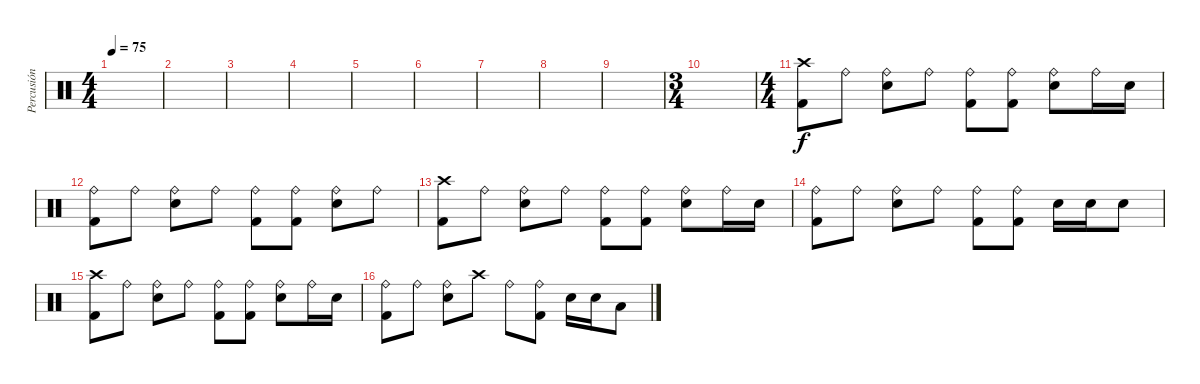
\track ("Percusión" "Percusión") {instrument percussion}
\staff {score}
\articulation defaults
\ts (4 4)
\tempo 75
\clef neutral
\ks c
|
|
|
|
|
|
|
|
|
\ts (3 4)
|
\ts (4 4)
("Crash high (hit)" "Kick (hit) 2").8 "Ride (bell)".8 ("Ride (bell)" "Electric Snare (hit)").8 "Ride (bell)".8 ("Ride (bell)" "Kick (hit) 2").8 ("Ride (bell)" "Kick (hit) 2").8 ("Ride (bell)" "Electric Snare (hit)").8 "Ride (bell)".16 "Electric Snare (hit)".16 |
("Ride (bell)" "Kick (hit) 2").8 "Ride (bell)".8 ("Ride (bell)" "Electric Snare (hit)").8 "Ride (bell)".8 ("Ride (bell)" "Kick (hit) 2").8 ("Ride (bell)" "Kick (hit) 2").8 ("Ride (bell)" "Electric Snare (hit)").8 "Ride (bell)".8 |
("Crash high (hit)" "Kick (hit) 2").8 "Ride (bell)".8 ("Ride (bell)" "Electric Snare (hit)").8 "Ride (bell)".8 ("Ride (bell)" "Kick (hit) 2").8 ("Ride (bell)" "Kick (hit) 2").8 ("Ride (bell)" "Electric Snare (hit)").8 "Ride (bell)".16 "Electric Snare (hit)".16 |
("Ride (bell)" "Kick (hit) 2").8 "Ride (bell)".8 ("Ride (bell)" "Electric Snare (hit)").8 "Ride (bell)".8 ("Ride (bell)" "Kick (hit) 2").8 ("Ride (bell)" "Kick (hit) 2").8 "Electric Snare (hit)".16 "Electric Snare (hit)".16 "Electric Snare (hit)".8 |
("Crash high (hit)" "Kick (hit) 2").8 "Ride (bell)".8 ("Ride (bell)" "Electric Snare (hit)").8 "Ride (bell)".8 ("Ride (bell)" "Kick (hit) 2").8 ("Ride (bell)" "Kick (hit) 2").8 ("Ride (bell)" "Electric Snare (hit)").8 "Ride (bell)".16 "Electric Snare (hit)".16 |
("Ride (bell)" "Kick (hit) 2").8 "Ride (bell)".8 ("Ride (bell)" "Electric Snare (hit)").8 "Crash high (hit)".8 "Ride (bell)".8 ("Ride (bell)" "Kick (hit) 2").8 "Electric Snare (hit)".16 "Electric Snare (hit)".16 "Low Tom (hit)".8
